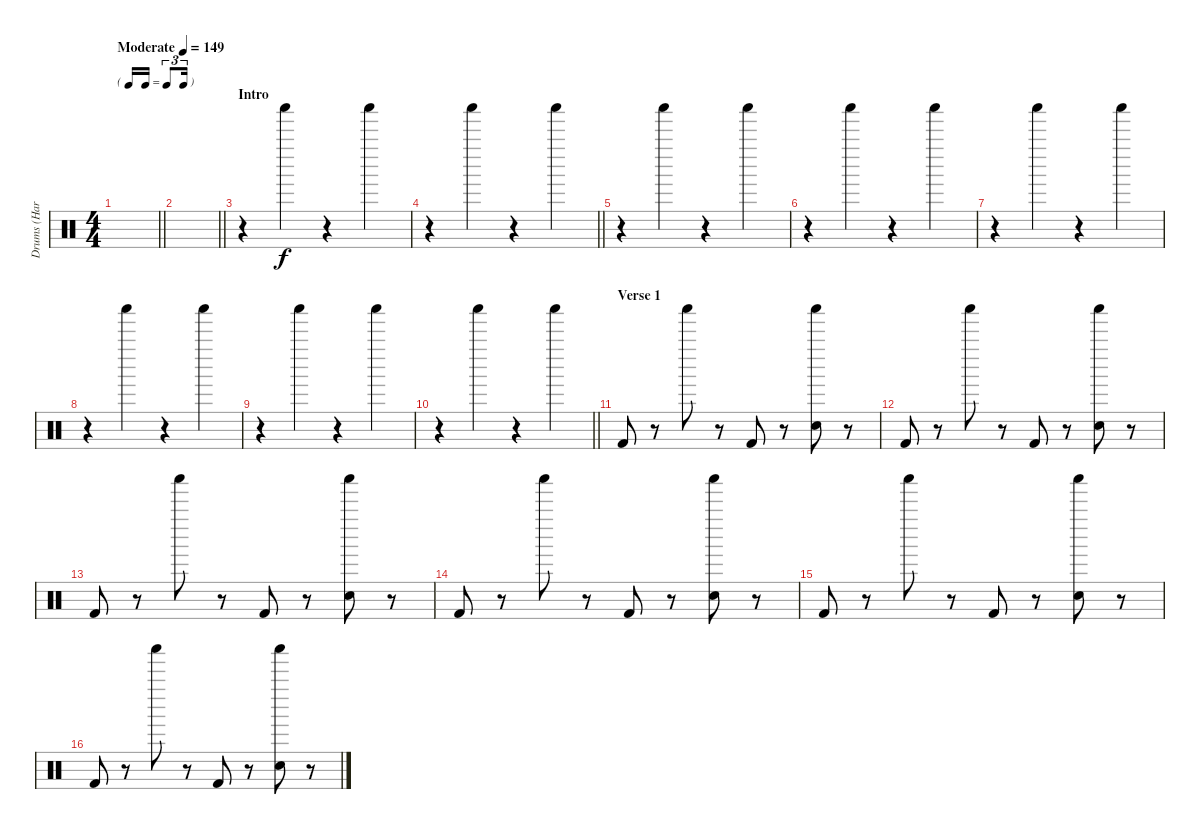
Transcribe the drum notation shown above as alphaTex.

\track ("Drums (Harry)" "Drums (Har") {instrument percussion}
\staff {score}
\articulation defaults
\ts (4 4)
\tf triplet16th
\tempo (149 "Moderate")
\clef neutral
\barLineRight lightlight
\ks c
|
\section ("" "")
\barLineRight lightlight
|
\section ("" "Intro")
r.4 "Shaker (hit)".4 r.4 "Shaker (hit)".4 |
\barLineRight lightlight
r.4 "Shaker (hit)".4 r.4 "Shaker (hit)".4 |
r.4 "Shaker (hit)".4 r.4 "Shaker (hit)".4 |
r.4 "Shaker (hit)".4 r.4 "Shaker (hit)".4 |
r.4 "Shaker (hit)".4 r.4 "Shaker (hit)".4 |
r.4 "Shaker (hit)".4 r.4 "Shaker (hit)".4 |
r.4 "Shaker (hit)".4 r.4 "Shaker (hit)".4 |
\barLineRight lightlight
r.4 "Shaker (hit)".4 r.4 "Shaker (hit)".4 |
\section ("" "Verse 1")
"Kick (hit) 2".8 r.8 "Shaker (hit)".8 r.8 "Kick (hit) 2".8 r.8 ("Shaker (hit)" "Hand Clap (hit)").8 r.8 |
"Kick (hit) 2".8 r.8 "Shaker (hit)".8 r.8 "Kick (hit) 2".8 r.8 ("Shaker (hit)" "Hand Clap (hit)").8 r.8 |
"Kick (hit) 2".8 r.8 "Shaker (hit)".8 r.8 "Kick (hit) 2".8 r.8 ("Shaker (hit)" "Hand Clap (hit)").8 r.8 |
"Kick (hit) 2".8 r.8 "Shaker (hit)".8 r.8 "Kick (hit) 2".8 r.8 ("Shaker (hit)" "Hand Clap (hit)").8 r.8 |
"Kick (hit) 2".8 r.8 "Shaker (hit)".8 r.8 "Kick (hit) 2".8 r.8 ("Shaker (hit)" "Hand Clap (hit)").8 r.8 |
"Kick (hit) 2".8 r.8 "Shaker (hit)".8 r.8 "Kick (hit) 2".8 r.8 ("Shaker (hit)" "Hand Clap (hit)").8 r.8
